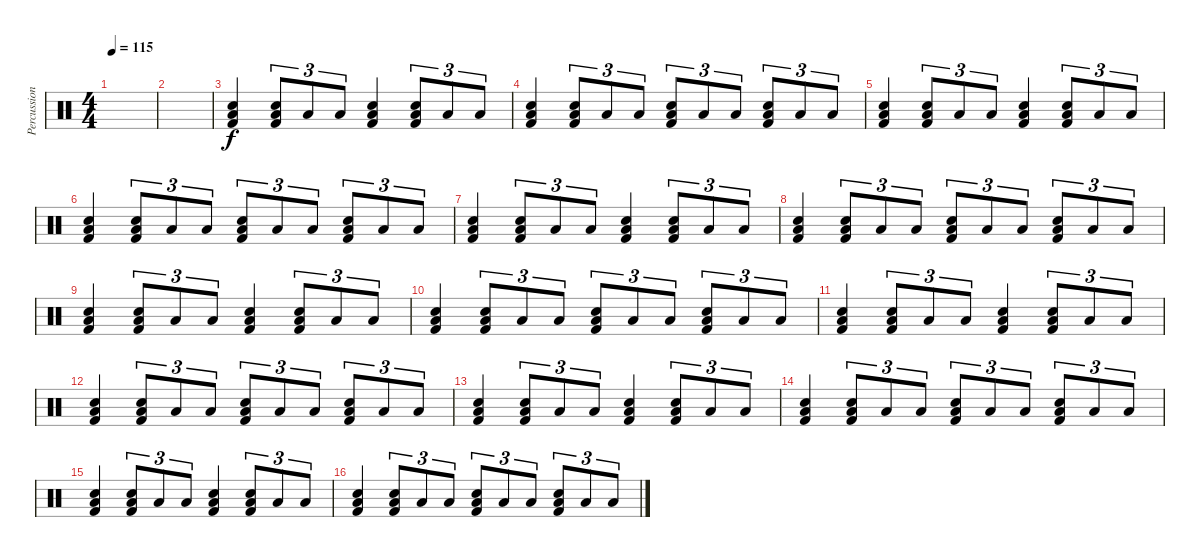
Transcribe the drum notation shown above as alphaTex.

\track ("Percussions" "Percussion") {instrument percussion}
\staff {score}
\articulation defaults
\ts (4 4)
\tempo 115
\clef neutral
\ks c
|
|
("Kick (hit) 2" "Low Tom (hit)" "Snare (hit) 2").4 ("Kick (hit) 2" "Low Tom (hit)" "Snare (hit) 2").8{tu (3 2)} "Low Tom (hit)".8{tu (3 2)} "Low Tom (hit)".8{tu (3 2)} ("Kick (hit) 2" "Low Tom (hit)" "Snare (hit) 2").4 ("Kick (hit) 2" "Low Tom (hit)" "Snare (hit) 2").8{tu (3 2)} "Low Tom (hit)".8{tu (3 2)} "Low Tom (hit)".8{tu (3 2)} |
("Kick (hit) 2" "Low Tom (hit)" "Snare (hit) 2").4 ("Kick (hit) 2" "Low Tom (hit)" "Snare (hit) 2").8{tu (3 2)} "Low Tom (hit)".8{tu (3 2)} "Low Tom (hit)".8{tu (3 2)} ("Kick (hit) 2" "Low Tom (hit)" "Snare (hit) 2").8{tu (3 2)} "Low Tom (hit)".8{tu (3 2)} "Low Tom (hit)".8{tu (3 2)} ("Kick (hit) 2" "Low Tom (hit)" "Snare (hit) 2").8{tu (3 2)} "Low Tom (hit)".8{tu (3 2)} "Low Tom (hit)".8{tu (3 2)} |
("Kick (hit) 2" "Low Tom (hit)" "Snare (hit) 2").4 ("Kick (hit) 2" "Low Tom (hit)" "Snare (hit) 2").8{tu (3 2)} "Low Tom (hit)".8{tu (3 2)} "Low Tom (hit)".8{tu (3 2)} ("Kick (hit) 2" "Low Tom (hit)" "Snare (hit) 2").4 ("Kick (hit) 2" "Low Tom (hit)" "Snare (hit) 2").8{tu (3 2)} "Low Tom (hit)".8{tu (3 2)} "Low Tom (hit)".8{tu (3 2)} |
("Kick (hit) 2" "Low Tom (hit)" "Snare (hit) 2").4 ("Kick (hit) 2" "Low Tom (hit)" "Snare (hit) 2").8{tu (3 2)} "Low Tom (hit)".8{tu (3 2)} "Low Tom (hit)".8{tu (3 2)} ("Kick (hit) 2" "Low Tom (hit)" "Snare (hit) 2").8{tu (3 2)} "Low Tom (hit)".8{tu (3 2)} "Low Tom (hit)".8{tu (3 2)} ("Kick (hit) 2" "Low Tom (hit)" "Snare (hit) 2").8{tu (3 2)} "Low Tom (hit)".8{tu (3 2)} "Low Tom (hit)".8{tu (3 2)} |
("Kick (hit) 2" "Low Tom (hit)" "Snare (hit) 2").4 ("Kick (hit) 2" "Low Tom (hit)" "Snare (hit) 2").8{tu (3 2)} "Low Tom (hit)".8{tu (3 2)} "Low Tom (hit)".8{tu (3 2)} ("Kick (hit) 2" "Low Tom (hit)" "Snare (hit) 2").4 ("Kick (hit) 2" "Low Tom (hit)" "Snare (hit) 2").8{tu (3 2)} "Low Tom (hit)".8{tu (3 2)} "Low Tom (hit)".8{tu (3 2)} |
("Kick (hit) 2" "Low Tom (hit)" "Snare (hit) 2").4 ("Kick (hit) 2" "Low Tom (hit)" "Snare (hit) 2").8{tu (3 2)} "Low Tom (hit)".8{tu (3 2)} "Low Tom (hit)".8{tu (3 2)} ("Kick (hit) 2" "Low Tom (hit)" "Snare (hit) 2").8{tu (3 2)} "Low Tom (hit)".8{tu (3 2)} "Low Tom (hit)".8{tu (3 2)} ("Kick (hit) 2" "Low Tom (hit)" "Snare (hit) 2").8{tu (3 2)} "Low Tom (hit)".8{tu (3 2)} "Low Tom (hit)".8{tu (3 2)} |
("Kick (hit) 2" "Low Tom (hit)" "Snare (hit) 2").4 ("Kick (hit) 2" "Low Tom (hit)" "Snare (hit) 2").8{tu (3 2)} "Low Tom (hit)".8{tu (3 2)} "Low Tom (hit)".8{tu (3 2)} ("Kick (hit) 2" "Low Tom (hit)" "Snare (hit) 2").4 ("Kick (hit) 2" "Low Tom (hit)" "Snare (hit) 2").8{tu (3 2)} "Low Tom (hit)".8{tu (3 2)} "Low Tom (hit)".8{tu (3 2)} |
("Kick (hit) 2" "Low Tom (hit)" "Snare (hit) 2").4 ("Kick (hit) 2" "Low Tom (hit)" "Snare (hit) 2").8{tu (3 2)} "Low Tom (hit)".8{tu (3 2)} "Low Tom (hit)".8{tu (3 2)} ("Kick (hit) 2" "Low Tom (hit)" "Snare (hit) 2").8{tu (3 2)} "Low Tom (hit)".8{tu (3 2)} "Low Tom (hit)".8{tu (3 2)} ("Kick (hit) 2" "Low Tom (hit)" "Snare (hit) 2").8{tu (3 2)} "Low Tom (hit)".8{tu (3 2)} "Low Tom (hit)".8{tu (3 2)} |
("Kick (hit) 2" "Low Tom (hit)" "Snare (hit) 2").4 ("Kick (hit) 2" "Low Tom (hit)" "Snare (hit) 2").8{tu (3 2)} "Low Tom (hit)".8{tu (3 2)} "Low Tom (hit)".8{tu (3 2)} ("Kick (hit) 2" "Low Tom (hit)" "Snare (hit) 2").4 ("Kick (hit) 2" "Low Tom (hit)" "Snare (hit) 2").8{tu (3 2)} "Low Tom (hit)".8{tu (3 2)} "Low Tom (hit)".8{tu (3 2)} |
("Kick (hit) 2" "Low Tom (hit)" "Snare (hit) 2").4 ("Kick (hit) 2" "Low Tom (hit)" "Snare (hit) 2").8{tu (3 2)} "Low Tom (hit)".8{tu (3 2)} "Low Tom (hit)".8{tu (3 2)} ("Kick (hit) 2" "Low Tom (hit)" "Snare (hit) 2").8{tu (3 2)} "Low Tom (hit)".8{tu (3 2)} "Low Tom (hit)".8{tu (3 2)} ("Kick (hit) 2" "Low Tom (hit)" "Snare (hit) 2").8{tu (3 2)} "Low Tom (hit)".8{tu (3 2)} "Low Tom (hit)".8{tu (3 2)} |
("Kick (hit) 2" "Low Tom (hit)" "Snare (hit) 2").4 ("Kick (hit) 2" "Low Tom (hit)" "Snare (hit) 2").8{tu (3 2)} "Low Tom (hit)".8{tu (3 2)} "Low Tom (hit)".8{tu (3 2)} ("Kick (hit) 2" "Low Tom (hit)" "Snare (hit) 2").4 ("Kick (hit) 2" "Low Tom (hit)" "Snare (hit) 2").8{tu (3 2)} "Low Tom (hit)".8{tu (3 2)} "Low Tom (hit)".8{tu (3 2)} |
("Kick (hit) 2" "Low Tom (hit)" "Snare (hit) 2").4 ("Kick (hit) 2" "Low Tom (hit)" "Snare (hit) 2").8{tu (3 2)} "Low Tom (hit)".8{tu (3 2)} "Low Tom (hit)".8{tu (3 2)} ("Kick (hit) 2" "Low Tom (hit)" "Snare (hit) 2").8{tu (3 2)} "Low Tom (hit)".8{tu (3 2)} "Low Tom (hit)".8{tu (3 2)} ("Kick (hit) 2" "Low Tom (hit)" "Snare (hit) 2").8{tu (3 2)} "Low Tom (hit)".8{tu (3 2)} "Low Tom (hit)".8{tu (3 2)} |
("Kick (hit) 2" "Low Tom (hit)" "Snare (hit) 2").4 ("Kick (hit) 2" "Low Tom (hit)" "Snare (hit) 2").8{tu (3 2)} "Low Tom (hit)".8{tu (3 2)} "Low Tom (hit)".8{tu (3 2)} ("Kick (hit) 2" "Low Tom (hit)" "Snare (hit) 2").4 ("Kick (hit) 2" "Low Tom (hit)" "Snare (hit) 2").8{tu (3 2)} "Low Tom (hit)".8{tu (3 2)} "Low Tom (hit)".8{tu (3 2)} |
("Kick (hit) 2" "Low Tom (hit)" "Snare (hit) 2").4 ("Kick (hit) 2" "Low Tom (hit)" "Snare (hit) 2").8{tu (3 2)} "Low Tom (hit)".8{tu (3 2)} "Low Tom (hit)".8{tu (3 2)} ("Kick (hit) 2" "Low Tom (hit)" "Snare (hit) 2").8{tu (3 2)} "Low Tom (hit)".8{tu (3 2)} "Low Tom (hit)".8{tu (3 2)} ("Kick (hit) 2" "Low Tom (hit)" "Snare (hit) 2").8{tu (3 2)} "Low Tom (hit)".8{tu (3 2)} "Low Tom (hit)".8{tu (3 2)}
